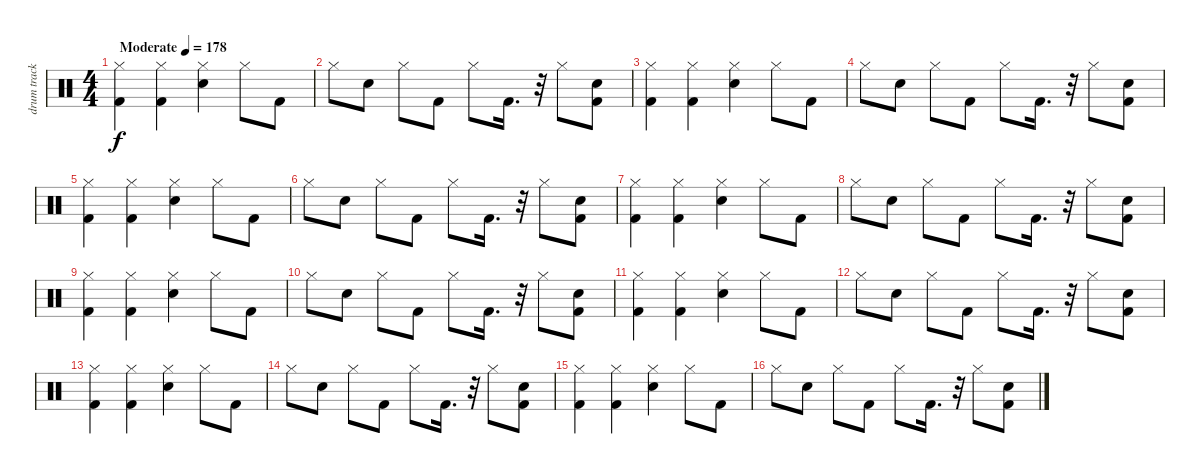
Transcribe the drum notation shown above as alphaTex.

\track ("drum track" "drum track") {instrument percussion}
\staff {score}
\articulation defaults
\ts (4 4)
\tempo (178 "Moderate")
\clef neutral
\ks c
("Hi-Hat (closed)" "Kick (hit) 2").4{dy f} ("Hi-Hat (closed)" "Kick (hit) 2").4 ("Snare (hit) 2" "Hi-Hat (closed)").4 "Hi-Hat (closed)".8 "Kick (hit) 2".8 |
"Hi-Hat (closed)".8 "Snare (hit) 2".8 "Hi-Hat (closed)".8 "Kick (hit) 2".8 "Hi-Hat (closed)".8 "Kick (hit) 2".16{d} r.32 "Hi-Hat (closed)".8 ("Kick (hit) 2" "Snare (hit) 2").8 |
("Hi-Hat (closed)" "Kick (hit) 2").4 ("Hi-Hat (closed)" "Kick (hit) 2").4 ("Snare (hit) 2" "Hi-Hat (closed)").4 "Hi-Hat (closed)".8 "Kick (hit) 2".8 |
"Hi-Hat (closed)".8 "Snare (hit) 2".8 "Hi-Hat (closed)".8 "Kick (hit) 2".8 "Hi-Hat (closed)".8 "Kick (hit) 2".16{d} r.32 "Hi-Hat (closed)".8 ("Kick (hit) 2" "Snare (hit) 2").8 |
("Hi-Hat (closed)" "Kick (hit) 2").4 ("Hi-Hat (closed)" "Kick (hit) 2").4 ("Snare (hit) 2" "Hi-Hat (closed)").4 "Hi-Hat (closed)".8 "Kick (hit) 2".8 |
"Hi-Hat (closed)".8 "Snare (hit) 2".8 "Hi-Hat (closed)".8 "Kick (hit) 2".8 "Hi-Hat (closed)".8 "Kick (hit) 2".16{d} r.32 "Hi-Hat (closed)".8 ("Kick (hit) 2" "Snare (hit) 2").8 |
("Hi-Hat (closed)" "Kick (hit) 2").4 ("Hi-Hat (closed)" "Kick (hit) 2").4 ("Snare (hit) 2" "Hi-Hat (closed)").4 "Hi-Hat (closed)".8 "Kick (hit) 2".8 |
"Hi-Hat (closed)".8 "Snare (hit) 2".8 "Hi-Hat (closed)".8 "Kick (hit) 2".8 "Hi-Hat (closed)".8 "Kick (hit) 2".16{d} r.32 "Hi-Hat (closed)".8 ("Kick (hit) 2" "Snare (hit) 2").8 |
("Hi-Hat (closed)" "Kick (hit) 2").4 ("Hi-Hat (closed)" "Kick (hit) 2").4 ("Snare (hit) 2" "Hi-Hat (closed)").4 "Hi-Hat (closed)".8 "Kick (hit) 2".8 |
"Hi-Hat (closed)".8 "Snare (hit) 2".8 "Hi-Hat (closed)".8 "Kick (hit) 2".8 "Hi-Hat (closed)".8 "Kick (hit) 2".16{d} r.32 "Hi-Hat (closed)".8 ("Kick (hit) 2" "Snare (hit) 2").8 |
("Hi-Hat (closed)" "Kick (hit) 2").4 ("Hi-Hat (closed)" "Kick (hit) 2").4 ("Snare (hit) 2" "Hi-Hat (closed)").4 "Hi-Hat (closed)".8 "Kick (hit) 2".8 |
"Hi-Hat (closed)".8 "Snare (hit) 2".8 "Hi-Hat (closed)".8 "Kick (hit) 2".8 "Hi-Hat (closed)".8 "Kick (hit) 2".16{d} r.32 "Hi-Hat (closed)".8 ("Kick (hit) 2" "Snare (hit) 2").8 |
("Hi-Hat (closed)" "Kick (hit) 2").4 ("Hi-Hat (closed)" "Kick (hit) 2").4 ("Snare (hit) 2" "Hi-Hat (closed)").4 "Hi-Hat (closed)".8 "Kick (hit) 2".8 |
"Hi-Hat (closed)".8 "Snare (hit) 2".8 "Hi-Hat (closed)".8 "Kick (hit) 2".8 "Hi-Hat (closed)".8 "Kick (hit) 2".16{d} r.32 "Hi-Hat (closed)".8 ("Kick (hit) 2" "Snare (hit) 2").8 |
("Hi-Hat (closed)" "Kick (hit) 2").4 ("Hi-Hat (closed)" "Kick (hit) 2").4 ("Snare (hit) 2" "Hi-Hat (closed)").4 "Hi-Hat (closed)".8 "Kick (hit) 2".8 |
"Hi-Hat (closed)".8 "Snare (hit) 2".8 "Hi-Hat (closed)".8 "Kick (hit) 2".8 "Hi-Hat (closed)".8 "Kick (hit) 2".16{d} r.32 "Hi-Hat (closed)".8 ("Kick (hit) 2" "Snare (hit) 2").8
